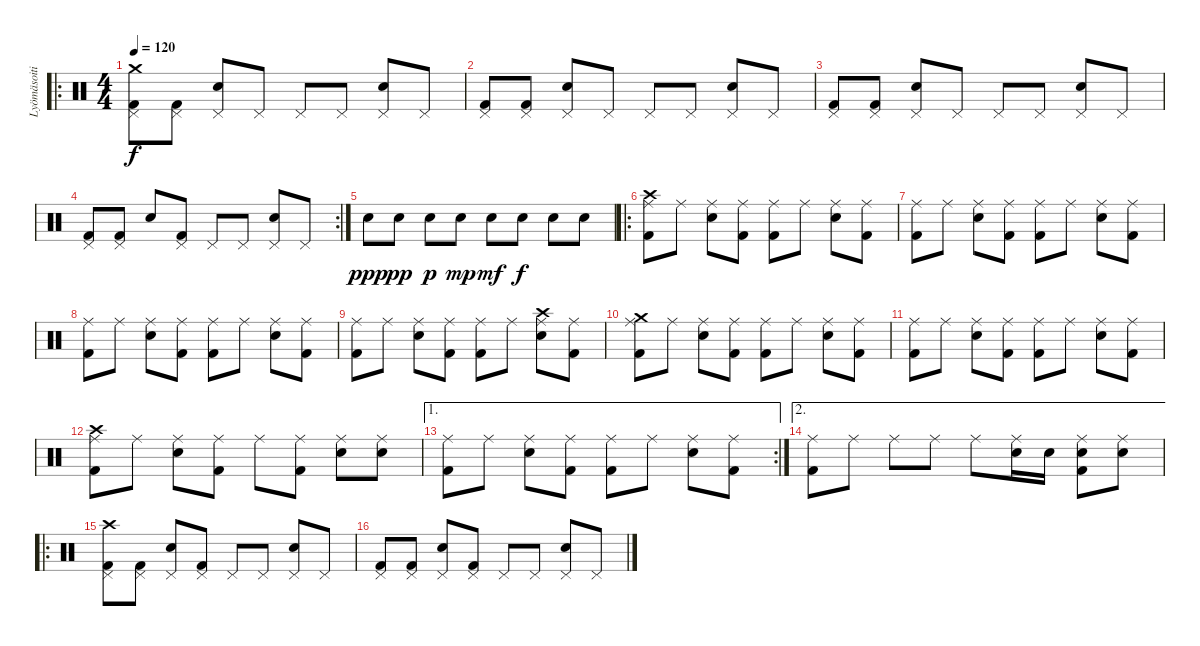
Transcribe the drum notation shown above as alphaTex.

\track ("Lyömäsoitin" "Lyömäsoiti") {instrument percussion}
\staff {score}
\articulation defaults
\ro
\ts (4 4)
\tempo 120
\clef neutral
\ks c
("Crash medium (hit)" "Pedal Hi-Hat (hit)" "Kick (hit) 2").8{dy f} ("Pedal Hi-Hat (hit)" "Kick (hit) 2").8 ("Pedal Hi-Hat (hit)" "Electric Snare (hit)").8 "Pedal Hi-Hat (hit)".8 "Pedal Hi-Hat (hit)".8 "Pedal Hi-Hat (hit)".8 ("Pedal Hi-Hat (hit)" "Electric Snare (hit)").8 "Pedal Hi-Hat (hit)".8 |
("Pedal Hi-Hat (hit)" "Kick (hit) 2").8 ("Pedal Hi-Hat (hit)" "Kick (hit) 2").8 ("Pedal Hi-Hat (hit)" "Electric Snare (hit)").8 "Pedal Hi-Hat (hit)".8 "Pedal Hi-Hat (hit)".8 "Pedal Hi-Hat (hit)".8 ("Pedal Hi-Hat (hit)" "Electric Snare (hit)").8 "Pedal Hi-Hat (hit)".8 |
("Pedal Hi-Hat (hit)" "Kick (hit) 2").8 ("Pedal Hi-Hat (hit)" "Kick (hit) 2").8 ("Pedal Hi-Hat (hit)" "Electric Snare (hit)").8 "Pedal Hi-Hat (hit)".8 "Pedal Hi-Hat (hit)".8 "Pedal Hi-Hat (hit)".8 ("Pedal Hi-Hat (hit)" "Electric Snare (hit)").8 "Pedal Hi-Hat (hit)".8 |
\rc 2
("Pedal Hi-Hat (hit)" "Kick (hit) 2").8 ("Pedal Hi-Hat (hit)" "Kick (hit) 2").8 "Electric Snare (hit)".8 ("Pedal Hi-Hat (hit)" "Kick (hit) 2").8 "Pedal Hi-Hat (hit)".8 "Pedal Hi-Hat (hit)".8 ("Pedal Hi-Hat (hit)" "Electric Snare (hit)").8 "Pedal Hi-Hat (hit)".8 |
"Electric Snare (hit)".8{dy ppp} "Electric Snare (hit)".8{dy pp} "Electric Snare (hit)".8{dy p} "Electric Snare (hit)".8{dy mp} "Electric Snare (hit)".8{dy mf} "Electric Snare (hit)".8{dy f} "Electric Snare (hit)".8 "Electric Snare (hit)".8 |
\ro
("Crash high (hit)" "Ride (middle)" "Kick (hit) 2").8 "Ride (middle)".8 ("Ride (middle)" "Electric Snare (hit)").8 ("Ride (middle)" "Kick (hit) 2").8 ("Ride (middle)" "Kick (hit) 2").8 "Ride (middle)".8 ("Ride (middle)" "Electric Snare (hit)").8 ("Ride (middle)" "Kick (hit) 2").8 |
("Ride (middle)" "Kick (hit) 2").8 "Ride (middle)".8 ("Ride (middle)" "Electric Snare (hit)").8 ("Ride (middle)" "Kick (hit) 2").8 ("Ride (middle)" "Kick (hit) 2").8 "Ride (middle)".8 ("Ride (middle)" "Electric Snare (hit)").8 ("Ride (middle)" "Kick (hit) 2").8 |
("Ride (middle)" "Kick (hit) 2").8 "Ride (middle)".8 ("Ride (middle)" "Electric Snare (hit)").8 ("Ride (middle)" "Kick (hit) 2").8 ("Ride (middle)" "Kick (hit) 2").8 "Ride (middle)".8 ("Ride (middle)" "Electric Snare (hit)").8 ("Ride (middle)" "Kick (hit) 2").8 |
("Ride (middle)" "Kick (hit) 2").8 "Ride (middle)".8 ("Ride (middle)" "Electric Snare (hit)").8 ("Ride (middle)" "Kick (hit) 2").8 ("Ride (middle)" "Kick (hit) 2").8 "Ride (middle)".8 ("Crash high (hit)" "Ride (middle)" "Electric Snare (hit)").8 ("Ride (middle)" "Kick (hit) 2").8 |
("Crash medium (hit)" "Ride (middle)" "Kick (hit) 2").8 "Ride (middle)".8 ("Ride (middle)" "Electric Snare (hit)").8 ("Ride (middle)" "Kick (hit) 2").8 ("Ride (middle)" "Kick (hit) 2").8 "Ride (middle)".8 ("Ride (middle)" "Electric Snare (hit)").8 ("Ride (middle)" "Kick (hit) 2").8 |
("Ride (middle)" "Kick (hit) 2").8 "Ride (middle)".8 ("Ride (middle)" "Electric Snare (hit)").8 ("Ride (middle)" "Kick (hit) 2").8 ("Ride (middle)" "Kick (hit) 2").8 "Ride (middle)".8 ("Ride (middle)" "Electric Snare (hit)").8 ("Ride (middle)" "Kick (hit) 2").8 |
("Crash high (hit)" "Ride (middle)" "Kick (hit) 2").8 "Ride (middle)".8 ("Ride (middle)" "Electric Snare (hit)").8 ("Ride (middle)" "Kick (hit) 2").8 "Ride (middle)".8 ("Ride (middle)" "Kick (hit) 2").8 ("Ride (middle)" "Electric Snare (hit)").8 ("Ride (middle)" "Electric Snare (hit)").8 |
\ae 1
\rc 2
("Ride (middle)" "Kick (hit) 2").8 "Ride (middle)".8 ("Ride (middle)" "Electric Snare (hit)").8 ("Ride (middle)" "Kick (hit) 2").8 ("Ride (middle)" "Kick (hit) 2").8 "Ride (middle)".8 ("Ride (middle)" "Electric Snare (hit)").8 ("Ride (middle)" "Kick (hit) 2").8 |
\ae 2
("Ride (middle)" "Kick (hit) 2").8 "Ride (middle)".8 "Ride (middle)".8 "Ride (middle)".8 "Ride (middle)".8 ("Ride (middle)" "Electric Snare (hit)").16 "Electric Snare (hit)".16 ("Ride (middle)" "Electric Snare (hit)" "Kick (hit) 2").8 ("Ride (middle)" "Electric Snare (hit)").8 |
\ro
("Crash high (hit)" "Pedal Hi-Hat (hit)" "Kick (hit) 2").8 ("Pedal Hi-Hat (hit)" "Kick (hit) 2").8 ("Pedal Hi-Hat (hit)" "Electric Snare (hit)").8 ("Pedal Hi-Hat (hit)" "Kick (hit) 2").8 "Pedal Hi-Hat (hit)".8 "Pedal Hi-Hat (hit)".8 ("Pedal Hi-Hat (hit)" "Electric Snare (hit)").8 "Pedal Hi-Hat (hit)".8 |
("Pedal Hi-Hat (hit)" "Kick (hit) 2").8 ("Pedal Hi-Hat (hit)" "Kick (hit) 2").8 ("Pedal Hi-Hat (hit)" "Electric Snare (hit)").8 ("Pedal Hi-Hat (hit)" "Kick (hit) 2").8 "Pedal Hi-Hat (hit)".8 "Pedal Hi-Hat (hit)".8 ("Pedal Hi-Hat (hit)" "Electric Snare (hit)").8 "Pedal Hi-Hat (hit)".8
